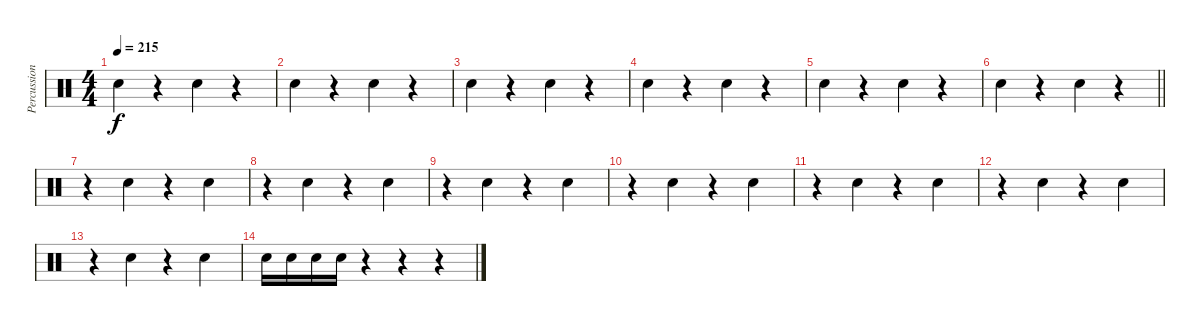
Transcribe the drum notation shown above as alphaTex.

\track ("Percussion" "Percussion") {instrument percussion}
\staff {score}
\articulation defaults
\ts (4 4)
\tempo 215
\clef neutral
\ks c "Snare (hit) 2".4{dy f}
r.4 "Snare (hit) 2".4 r.4 |
"Snare (hit) 2".4 r.4 "Snare (hit) 2".4 r.4 |
"Snare (hit) 2".4 r.4 "Snare (hit) 2".4 r.4 |
"Snare (hit) 2".4 r.4 "Snare (hit) 2".4 r.4 |
"Snare (hit) 2".4 r.4 "Snare (hit) 2".4 r.4 |
\barLineRight lightlight "Snare (hit) 2".4
r.4 "Snare (hit) 2".4 r.4 |
r.4 "Snare (hit) 2".4 r.4 "Snare (hit) 2".4 |
r.4 "Snare (hit) 2".4 r.4 "Snare (hit) 2".4 |
r.4 "Snare (hit) 2".4 r.4 "Snare (hit) 2".4 |
r.4 "Snare (hit) 2".4 r.4 "Snare (hit) 2".4 |
r.4 "Snare (hit) 2".4 r.4 "Snare (hit) 2".4 |
r.4 "Snare (hit) 2".4 r.4 "Snare (hit) 2".4 |
r.4 "Snare (hit) 2".4 r.4 "Snare (hit) 2".4 |
"Snare (hit) 2".16 "Snare (hit) 2".16 "Snare (hit) 2".16 "Snare (hit) 2".16 r.4 r.4 r.4
